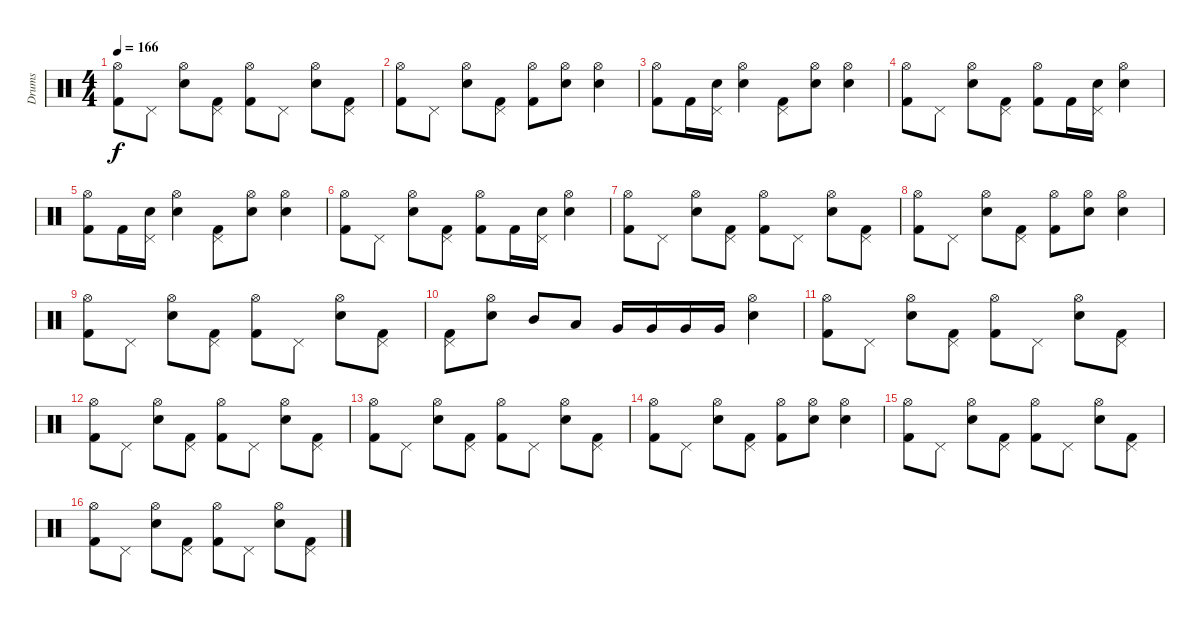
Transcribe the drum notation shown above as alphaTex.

\track ("Drums" "Drums") {instrument percussion}
\staff {score}
\articulation defaults
\ts (4 4)
\tempo 166
\clef neutral
\ks c
("Kick (hit) 2" "Hi-Hat (open)").8{dy f} "Pedal Hi-Hat (hit)".8 ("Snare (hit) 2" "Hi-Hat (open)").8 ("Kick (hit) 2" "Pedal Hi-Hat (hit)").8 ("Kick (hit) 2" "Hi-Hat (open)").8 "Pedal Hi-Hat (hit)".8 ("Snare (hit) 2" "Hi-Hat (open)").8 ("Kick (hit) 2" "Pedal Hi-Hat (hit)").8 |
("Kick (hit) 2" "Hi-Hat (open)").8 "Pedal Hi-Hat (hit)".8 ("Snare (hit) 2" "Hi-Hat (open)").8 ("Kick (hit) 2" "Pedal Hi-Hat (hit)").8 ("Kick (hit) 2" "Hi-Hat (open)").8 ("Snare (hit) 2" "Hi-Hat (open)").8 ("Snare (hit) 2" "Hi-Hat (open)").4 |
("Kick (hit) 2" "Hi-Hat (open)").8 "Kick (hit) 2".16 ("Snare (hit) 2" "Pedal Hi-Hat (hit)").16 ("Snare (hit) 2" "Hi-Hat (open)").4 ("Kick (hit) 2" "Pedal Hi-Hat (hit)").8 ("Snare (hit) 2" "Hi-Hat (open)").8 ("Snare (hit) 2" "Hi-Hat (open)").4 |
("Kick (hit) 2" "Hi-Hat (open)").8 "Pedal Hi-Hat (hit)".8 ("Snare (hit) 2" "Hi-Hat (open)").8 ("Kick (hit) 2" "Pedal Hi-Hat (hit)").8 ("Kick (hit) 2" "Hi-Hat (open)").8 "Kick (hit) 2".16 ("Snare (hit) 2" "Pedal Hi-Hat (hit)").16 ("Snare (hit) 2" "Hi-Hat (open)").4 |
("Kick (hit) 2" "Hi-Hat (open)").8 "Kick (hit) 2".16 ("Snare (hit) 2" "Pedal Hi-Hat (hit)").16 ("Snare (hit) 2" "Hi-Hat (open)").4 ("Kick (hit) 2" "Pedal Hi-Hat (hit)").8 ("Snare (hit) 2" "Hi-Hat (open)").8 ("Snare (hit) 2" "Hi-Hat (open)").4 |
("Kick (hit) 2" "Hi-Hat (open)").8 "Pedal Hi-Hat (hit)".8 ("Snare (hit) 2" "Hi-Hat (open)").8 ("Kick (hit) 2" "Pedal Hi-Hat (hit)").8 ("Kick (hit) 2" "Hi-Hat (open)").8 "Kick (hit) 2".16 ("Snare (hit) 2" "Pedal Hi-Hat (hit)").16 ("Snare (hit) 2" "Hi-Hat (open)").4 |
("Kick (hit) 2" "Hi-Hat (open)").8 "Pedal Hi-Hat (hit)".8 ("Snare (hit) 2" "Hi-Hat (open)").8 ("Kick (hit) 2" "Pedal Hi-Hat (hit)").8 ("Kick (hit) 2" "Hi-Hat (open)").8 "Pedal Hi-Hat (hit)".8 ("Snare (hit) 2" "Hi-Hat (open)").8 ("Kick (hit) 2" "Pedal Hi-Hat (hit)").8 |
("Kick (hit) 2" "Hi-Hat (open)").8 "Pedal Hi-Hat (hit)".8 ("Snare (hit) 2" "Hi-Hat (open)").8 ("Kick (hit) 2" "Pedal Hi-Hat (hit)").8 ("Kick (hit) 2" "Hi-Hat (open)").8 ("Snare (hit) 2" "Hi-Hat (open)").8 ("Snare (hit) 2" "Hi-Hat (open)").4 |
("Kick (hit) 2" "Hi-Hat (open)").8 "Pedal Hi-Hat (hit)".8 ("Snare (hit) 2" "Hi-Hat (open)").8 ("Kick (hit) 2" "Pedal Hi-Hat (hit)").8 ("Kick (hit) 2" "Hi-Hat (open)").8 "Pedal Hi-Hat (hit)".8 ("Snare (hit) 2" "Hi-Hat (open)").8 ("Kick (hit) 2" "Pedal Hi-Hat (hit)").8 |
("Kick (hit) 2" "Pedal Hi-Hat (hit)").8 ("Snare (hit) 2" "Hi-Hat (open)").8 "Mid Tom (hit)".8 "Low Tom (hit)".8 "Very Low Tom (hit)".16 "Very Low Tom (hit)".16 "Very Low Tom (hit)".16 "Very Low Tom (hit)".16 ("Snare (hit) 2" "Hi-Hat (open)").4 |
("Kick (hit) 2" "Hi-Hat (open)").8 "Pedal Hi-Hat (hit)".8 ("Snare (hit) 2" "Hi-Hat (open)").8 ("Kick (hit) 2" "Pedal Hi-Hat (hit)").8 ("Kick (hit) 2" "Hi-Hat (open)").8 "Pedal Hi-Hat (hit)".8 ("Snare (hit) 2" "Hi-Hat (open)").8 ("Kick (hit) 2" "Pedal Hi-Hat (hit)").8 |
("Kick (hit) 2" "Hi-Hat (open)").8 "Pedal Hi-Hat (hit)".8 ("Snare (hit) 2" "Hi-Hat (open)").8 ("Kick (hit) 2" "Pedal Hi-Hat (hit)").8 ("Kick (hit) 2" "Hi-Hat (open)").8 "Pedal Hi-Hat (hit)".8 ("Snare (hit) 2" "Hi-Hat (open)").8 ("Kick (hit) 2" "Pedal Hi-Hat (hit)").8 |
("Kick (hit) 2" "Hi-Hat (open)").8 "Pedal Hi-Hat (hit)".8 ("Snare (hit) 2" "Hi-Hat (open)").8 ("Kick (hit) 2" "Pedal Hi-Hat (hit)").8 ("Kick (hit) 2" "Hi-Hat (open)").8 "Pedal Hi-Hat (hit)".8 ("Snare (hit) 2" "Hi-Hat (open)").8 ("Kick (hit) 2" "Pedal Hi-Hat (hit)").8 |
("Kick (hit) 2" "Hi-Hat (open)").8 "Pedal Hi-Hat (hit)".8 ("Snare (hit) 2" "Hi-Hat (open)").8 ("Kick (hit) 2" "Pedal Hi-Hat (hit)").8 ("Kick (hit) 2" "Hi-Hat (open)").8 ("Snare (hit) 2" "Hi-Hat (open)").8 ("Snare (hit) 2" "Hi-Hat (open)").4 |
("Kick (hit) 2" "Hi-Hat (open)").8 "Pedal Hi-Hat (hit)".8 ("Snare (hit) 2" "Hi-Hat (open)").8 ("Kick (hit) 2" "Pedal Hi-Hat (hit)").8 ("Kick (hit) 2" "Hi-Hat (open)").8 "Pedal Hi-Hat (hit)".8 ("Snare (hit) 2" "Hi-Hat (open)").8 ("Kick (hit) 2" "Pedal Hi-Hat (hit)").8 |
("Kick (hit) 2" "Hi-Hat (open)").8 "Pedal Hi-Hat (hit)".8 ("Snare (hit) 2" "Hi-Hat (open)").8 ("Kick (hit) 2" "Pedal Hi-Hat (hit)").8 ("Kick (hit) 2" "Hi-Hat (open)").8 "Pedal Hi-Hat (hit)".8 ("Snare (hit) 2" "Hi-Hat (open)").8 ("Kick (hit) 2" "Pedal Hi-Hat (hit)").8
